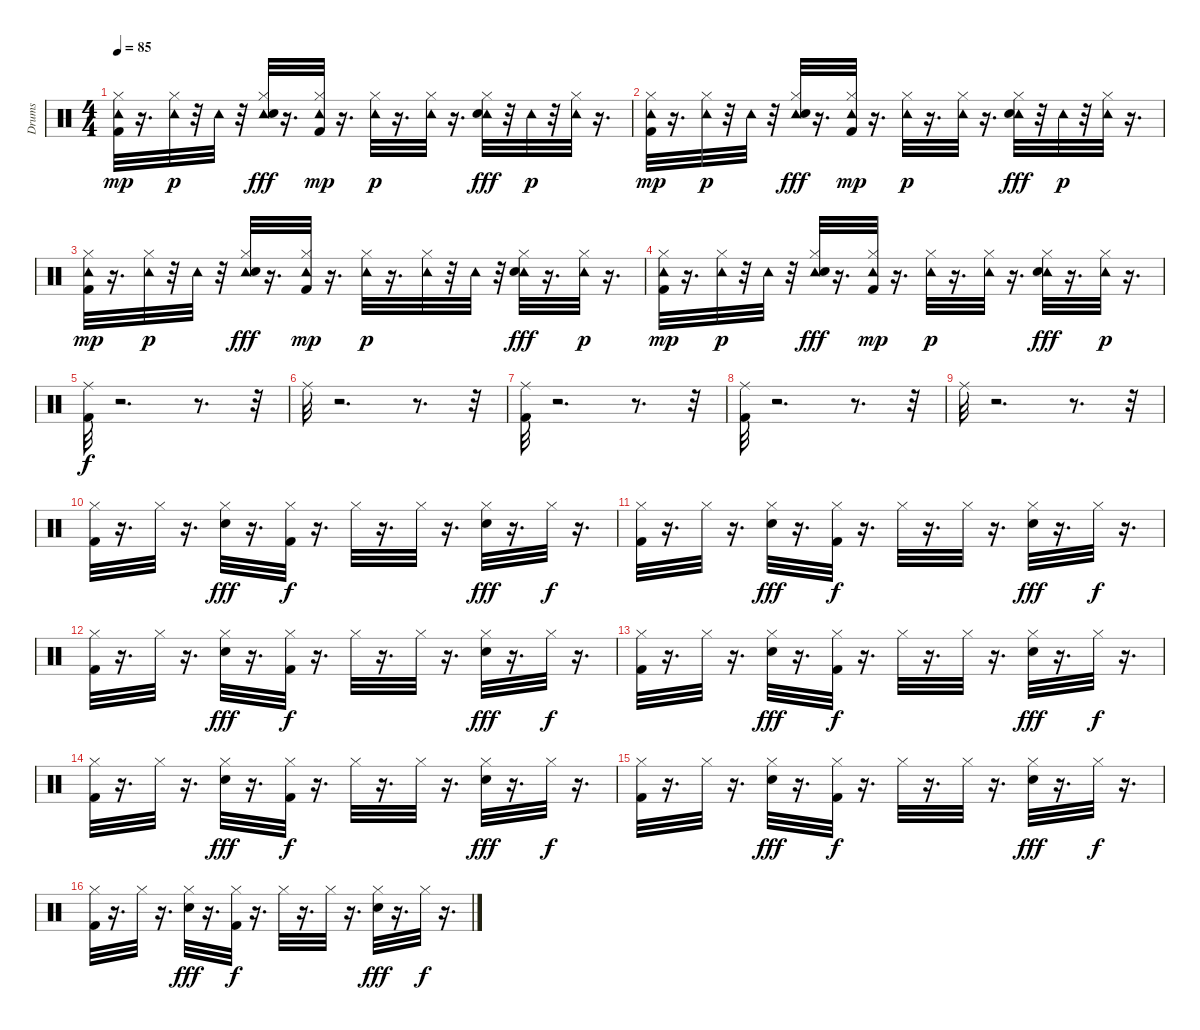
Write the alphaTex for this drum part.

\track ("Drums" "Drums") {instrument percussion}
\staff {score}
\articulation defaults
\ts (4 4)
\tempo 85
\clef neutral
\ks c
("Tambourine (hit)" "Hi-Hat (closed)" "Kick (hit) 2").32{dy mp} r.16{d} ("Tambourine (hit)" "Hi-Hat (closed)").32{dy p} r.32 "Tambourine (hit)".32 r.32 ("Tambourine (hit)" "Hi-Hat (closed)" "Electric Snare (hit)").32{dy fff} r.16{d} ("Tambourine (hit)" "Hi-Hat (closed)" "Kick (hit) 2").32{dy mp} r.16{d} ("Tambourine (hit)" "Hi-Hat (closed)").32{dy p} r.16{d} ("Tambourine (hit)" "Hi-Hat (closed)").32 r.16{d} ("Tambourine (hit)" "Hi-Hat (closed)" "Electric Snare (hit)").32{dy fff} r.32 "Tambourine (hit)".32{dy p} r.32 ("Tambourine (hit)" "Hi-Hat (closed)").32 r.16{d} |
("Tambourine (hit)" "Hi-Hat (closed)" "Kick (hit) 2").32{dy mp} r.16{d} ("Tambourine (hit)" "Hi-Hat (closed)").32{dy p} r.32 "Tambourine (hit)".32 r.32 ("Tambourine (hit)" "Hi-Hat (closed)" "Electric Snare (hit)").32{dy fff} r.16{d} ("Tambourine (hit)" "Hi-Hat (closed)" "Kick (hit) 2").32{dy mp} r.16{d} ("Tambourine (hit)" "Hi-Hat (closed)").32{dy p} r.16{d} ("Tambourine (hit)" "Hi-Hat (closed)").32 r.16{d} ("Tambourine (hit)" "Hi-Hat (closed)" "Electric Snare (hit)").32{dy fff} r.32 "Tambourine (hit)".32{dy p} r.32 ("Tambourine (hit)" "Hi-Hat (closed)").32 r.16{d} |
("Tambourine (hit)" "Hi-Hat (closed)" "Kick (hit) 2").32{dy mp} r.16{d} ("Tambourine (hit)" "Hi-Hat (closed)").32{dy p} r.32 "Tambourine (hit)".32 r.32 ("Tambourine (hit)" "Hi-Hat (closed)" "Electric Snare (hit)").32{dy fff} r.16{d} ("Tambourine (hit)" "Hi-Hat (closed)" "Kick (hit) 2").32{dy mp} r.16{d} ("Tambourine (hit)" "Hi-Hat (closed)").32{dy p} r.16{d} ("Tambourine (hit)" "Hi-Hat (closed)").32 r.32 "Tambourine (hit)".32 r.32 ("Tambourine (hit)" "Hi-Hat (closed)" "Electric Snare (hit)").32{dy fff} r.16{d} ("Tambourine (hit)" "Hi-Hat (closed)").32{dy p} r.16{d} |
("Tambourine (hit)" "Hi-Hat (closed)" "Kick (hit) 2").32{dy mp} r.16{d} ("Tambourine (hit)" "Hi-Hat (closed)").32{dy p} r.32 "Tambourine (hit)".32 r.32 ("Tambourine (hit)" "Hi-Hat (closed)" "Electric Snare (hit)").32{dy fff} r.16{d} ("Tambourine (hit)" "Hi-Hat (closed)" "Kick (hit) 2").32{dy mp} r.16{d} ("Tambourine (hit)" "Hi-Hat (closed)").32{dy p} r.16{d} ("Tambourine (hit)" "Hi-Hat (closed)").32 r.16{d} ("Tambourine (hit)" "Hi-Hat (closed)" "Electric Snare (hit)").32{dy fff} r.16{d} ("Tambourine (hit)" "Hi-Hat (closed)").32{dy p} r.16{d} |
("Kick (hit) 2" "Ride (middle)").32{dy f} r.2{d} r.8{d} r.32 |
"Ride (middle)".32 r.2{d} r.8{d} r.32 |
("Kick (hit) 2" "Ride (middle)").32 r.2{d} r.8{d} r.32 |
("Kick (hit) 2" "Ride (middle)").32 r.2{d} r.8{d} r.32 |
"Ride (middle)".32 r.2{d} r.8{d} r.32 |
("Hi-Hat (closed)" "Kick (hit) 2").32 r.16{d} "Hi-Hat (closed)".32 r.16{d} ("Hi-Hat (closed)" "Electric Snare (hit)").32{dy fff} r.16{d} ("Hi-Hat (closed)" "Kick (hit) 2").32{dy f} r.16{d} "Hi-Hat (closed)".32 r.16{d} "Hi-Hat (closed)".32 r.16{d} ("Hi-Hat (closed)" "Electric Snare (hit)").32{dy fff} r.16{d} "Hi-Hat (closed)".32{dy f} r.16{d} |
("Hi-Hat (closed)" "Kick (hit) 2").32 r.16{d} "Hi-Hat (closed)".32 r.16{d} ("Hi-Hat (closed)" "Electric Snare (hit)").32{dy fff} r.16{d} ("Hi-Hat (closed)" "Kick (hit) 2").32{dy f} r.16{d} "Hi-Hat (closed)".32 r.16{d} "Hi-Hat (closed)".32 r.16{d} ("Hi-Hat (closed)" "Electric Snare (hit)").32{dy fff} r.16{d} "Hi-Hat (closed)".32{dy f} r.16{d} |
("Hi-Hat (closed)" "Kick (hit) 2").32 r.16{d} "Hi-Hat (closed)".32 r.16{d} ("Hi-Hat (closed)" "Electric Snare (hit)").32{dy fff} r.16{d} ("Hi-Hat (closed)" "Kick (hit) 2").32{dy f} r.16{d} "Hi-Hat (closed)".32 r.16{d} "Hi-Hat (closed)".32 r.16{d} ("Hi-Hat (closed)" "Electric Snare (hit)").32{dy fff} r.16{d} "Hi-Hat (closed)".32{dy f} r.16{d} |
("Hi-Hat (closed)" "Kick (hit) 2").32 r.16{d} "Hi-Hat (closed)".32 r.16{d} ("Hi-Hat (closed)" "Electric Snare (hit)").32{dy fff} r.16{d} ("Hi-Hat (closed)" "Kick (hit) 2").32{dy f} r.16{d} "Hi-Hat (closed)".32 r.16{d} "Hi-Hat (closed)".32 r.16{d} ("Hi-Hat (closed)" "Electric Snare (hit)").32{dy fff} r.16{d} "Hi-Hat (closed)".32{dy f} r.16{d} |
("Hi-Hat (closed)" "Kick (hit) 2").32 r.16{d} "Hi-Hat (closed)".32 r.16{d} ("Hi-Hat (closed)" "Electric Snare (hit)").32{dy fff} r.16{d} ("Hi-Hat (closed)" "Kick (hit) 2").32{dy f} r.16{d} "Hi-Hat (closed)".32 r.16{d} "Hi-Hat (closed)".32 r.16{d} ("Hi-Hat (closed)" "Electric Snare (hit)").32{dy fff} r.16{d} "Hi-Hat (closed)".32{dy f} r.16{d} |
("Hi-Hat (closed)" "Kick (hit) 2").32 r.16{d} "Hi-Hat (closed)".32 r.16{d} ("Hi-Hat (closed)" "Electric Snare (hit)").32{dy fff} r.16{d} ("Hi-Hat (closed)" "Kick (hit) 2").32{dy f} r.16{d} "Hi-Hat (closed)".32 r.16{d} "Hi-Hat (closed)".32 r.16{d} ("Hi-Hat (closed)" "Electric Snare (hit)").32{dy fff} r.16{d} "Hi-Hat (closed)".32{dy f} r.16{d} |
("Hi-Hat (closed)" "Kick (hit) 2").32 r.16{d} "Hi-Hat (closed)".32 r.16{d} ("Hi-Hat (closed)" "Electric Snare (hit)").32{dy fff} r.16{d} ("Hi-Hat (closed)" "Kick (hit) 2").32{dy f} r.16{d} "Hi-Hat (closed)".32 r.16{d} "Hi-Hat (closed)".32 r.16{d} ("Hi-Hat (closed)" "Electric Snare (hit)").32{dy fff} r.16{d} "Hi-Hat (closed)".32{dy f} r.16{d}
